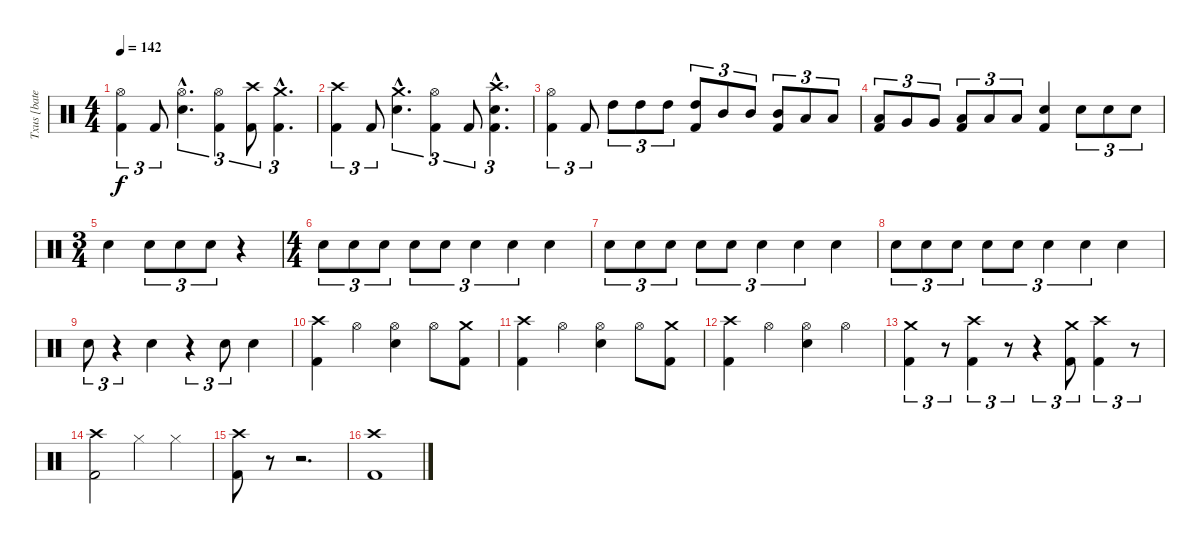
\track ("Txus [bateria]" "Txus [bate") {instrument percussion}
\staff {score}
\articulation defaults
\ts (4 4)
\tempo 142
\clef neutral
\ks c
("Hi-Hat (open)" "Kick (hit) 2").4{tu (3 2) dy f} "Kick (hit) 2".8{tu (3 2)} ("Hi-Hat (open)"{hac} "Snare (hit) 2"{hac}).4{d tu (3 2)} ("Hi-Hat (open)" "Kick (hit) 2").4{tu (3 2)} ("Crash high (hit)" "Kick (hit) 2").8{tu (3 2)} ("Crash medium (hit)"{hac} "Kick (hit) 2"{hac}).4{d tu (3 2)} |
("Crash high (hit)" "Kick (hit) 2").4{tu (3 2)} "Kick (hit) 2".8{tu (3 2)} ("Crash medium (hit)"{hac} "Snare (hit) 2"{hac}).4{d tu (3 2)} ("Hi-Hat (open)" "Kick (hit) 2").4{tu (3 2)} "Kick (hit) 2".8{tu (3 2)} ("Crash high (hit)"{hac} "Snare (hit) 2"{hac} "Kick (hit) 2"{hac}).4{d tu (3 2)} |
("Hi-Hat (open)" "Kick (hit) 2").4{tu (3 2)} "Kick (hit) 2".8{tu (3 2)} "High Tom (hit)".8{tu (3 2)} "High Tom (hit)".8{tu (3 2)} "High Tom (hit)".8{tu (3 2)} ("High Tom (hit)" "Kick (hit) 2").8{tu (3 2)} "Mid Tom (hit)".8{tu (3 2)} "Mid Tom (hit)".8{tu (3 2)} ("Mid Tom (hit)" "Kick (hit) 2").8{tu (3 2)} "Low Tom (hit)".8{tu (3 2)} "Low Tom (hit)".8{tu (3 2)} |
("Low Tom (hit)" "Kick (hit) 2").8{tu (3 2)} "Very Low Tom (hit)".8{tu (3 2)} "Very Low Tom (hit)".8{tu (3 2)} ("Low Floor Tom (hit)" "Kick (hit) 2").8{tu (3 2)} "Low Floor Tom (hit)".8{tu (3 2)} "Low Floor Tom (hit)".8{tu (3 2)} ("Snare (hit) 2" "Kick (hit) 2").4 "Snare (hit) 2".8{tu (3 2)} "Snare (hit) 2".8{tu (3 2)} "Snare (hit) 2".8{tu (3 2)} |
\ts (3 4)
"Snare (hit) 2".4 "Snare (hit) 2".8{tu (3 2)} "Snare (hit) 2".8{tu (3 2)} "Snare (hit) 2".8{tu (3 2)} r.4 |
\ts (4 4)
"Snare (hit) 2".8{tu (3 2)} "Snare (hit) 2".8{tu (3 2)} "Snare (hit) 2".8{tu (3 2)} "Snare (hit) 2".8{tu (3 2)} "Snare (hit) 2".8{tu (3 2)} "Snare (hit) 2".4{tu (3 2)} "Snare (hit) 2".4{tu (3 2)} "Snare (hit) 2".4 |
"Snare (hit) 2".8{tu (3 2)} "Snare (hit) 2".8{tu (3 2)} "Snare (hit) 2".8{tu (3 2)} "Snare (hit) 2".8{tu (3 2)} "Snare (hit) 2".8{tu (3 2)} "Snare (hit) 2".4{tu (3 2)} "Snare (hit) 2".4{tu (3 2)} "Snare (hit) 2".4 |
"Snare (hit) 2".8{tu (3 2)} "Snare (hit) 2".8{tu (3 2)} "Snare (hit) 2".8{tu (3 2)} "Snare (hit) 2".8{tu (3 2)} "Snare (hit) 2".8{tu (3 2)} "Snare (hit) 2".4{tu (3 2)} "Snare (hit) 2".4{tu (3 2)} "Snare (hit) 2".4 |
"Snare (hit) 2".8{tu (3 2)} r.4{tu (3 2)} "Snare (hit) 2".4 r.4{tu (3 2)} "Snare (hit) 2".8{tu (3 2)} "Snare (hit) 2".4 |
("Crash high (hit)" "Kick (hit) 2").4 "Hi-Hat (open)".4 ("Hi-Hat (open)" "Snare (hit) 2").4 "Hi-Hat (open)".8 ("Crash medium (hit)" "Kick (hit) 2").8 |
("Crash high (hit)" "Kick (hit) 2").4 "Hi-Hat (open)".4 ("Hi-Hat (open)" "Snare (hit) 2").4 "Hi-Hat (open)".8 ("Crash medium (hit)" "Kick (hit) 2").8 |
("Crash high (hit)" "Kick (hit) 2").4 "Hi-Hat (open)".4 ("Hi-Hat (open)" "Snare (hit) 2").4 "Hi-Hat (open)".4 |
("Crash medium (hit)" "Kick (hit) 2").4{tu (3 2)} r.8{tu (3 2) volume 0} ("Crash high (hit)" "Kick (hit) 2").4{tu (3 2) volume 13} r.8{tu (3 2) volume 0} r.4{tu (3 2)} ("Crash medium (hit)" "Kick (hit) 2").8{tu (3 2) volume 13} ("Crash high (hit)" "Kick (hit) 2").4{tu (3 2)} r.8{tu (3 2) volume 0} |
("Crash high (hit)" "Kick (hit) 2").2{volume 13} "Hi-Hat (closed)".4 "Hi-Hat (closed)".4 |
("Crash high (hit)" "Kick (hit) 2").8 r.8{volume 0} r.2{d} |
("Crash high (hit)" "Kick (hit) 2").1{volume 13}
